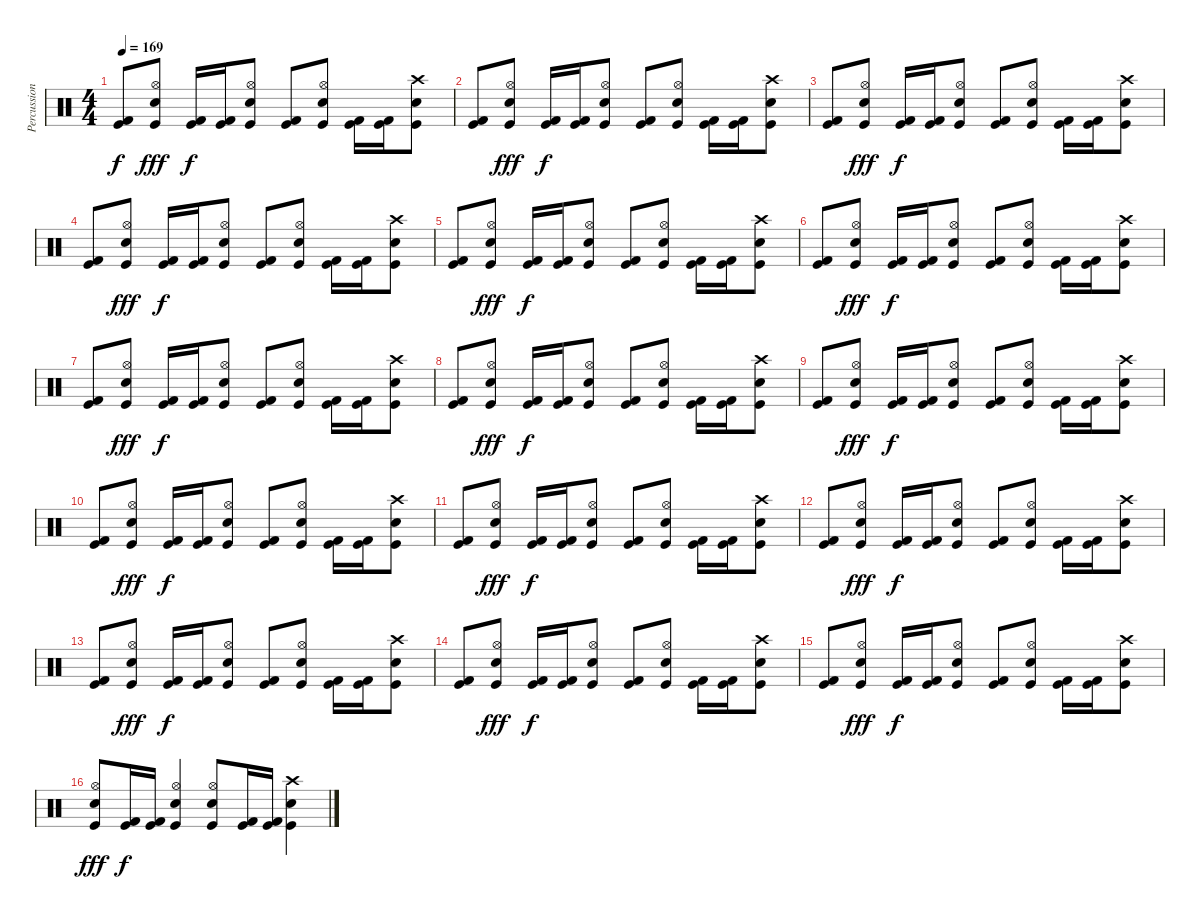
\track ("Percussion" "Percussion") {instrument percussion}
\staff {score}
\articulation defaults
\ts (4 4)
\tempo 169
\clef neutral
\ks c
("Kick (hit) 2" "Kick (hit)").8{dy f} ("Hi-Hat (open)" "Electric Snare (hit)" "Kick (hit)").8{dy fff} ("Kick (hit) 2" "Kick (hit)").16{dy f} ("Kick (hit) 2" "Kick (hit)").16 ("Hi-Hat (open)" "Electric Snare (hit)" "Kick (hit)").8 ("Kick (hit) 2" "Kick (hit)").8 ("Hi-Hat (open)" "Electric Snare (hit)" "Kick (hit)").8 ("Kick (hit) 2" "Kick (hit)").16 ("Kick (hit) 2" "Kick (hit)").16 ("Crash high (hit)" "Electric Snare (hit)" "Kick (hit)").8 |
("Kick (hit) 2" "Kick (hit)").8 ("Hi-Hat (open)" "Electric Snare (hit)" "Kick (hit)").8{dy fff} ("Kick (hit) 2" "Kick (hit)").16{dy f} ("Kick (hit) 2" "Kick (hit)").16 ("Hi-Hat (open)" "Electric Snare (hit)" "Kick (hit)").8 ("Kick (hit) 2" "Kick (hit)").8 ("Hi-Hat (open)" "Electric Snare (hit)" "Kick (hit)").8 ("Kick (hit) 2" "Kick (hit)").16 ("Kick (hit) 2" "Kick (hit)").16 ("Crash high (hit)" "Electric Snare (hit)" "Kick (hit)").8 |
("Kick (hit) 2" "Kick (hit)").8 ("Hi-Hat (open)" "Electric Snare (hit)" "Kick (hit)").8{dy fff} ("Kick (hit) 2" "Kick (hit)").16{dy f} ("Kick (hit) 2" "Kick (hit)").16 ("Hi-Hat (open)" "Electric Snare (hit)" "Kick (hit)").8 ("Kick (hit) 2" "Kick (hit)").8 ("Hi-Hat (open)" "Electric Snare (hit)" "Kick (hit)").8 ("Kick (hit) 2" "Kick (hit)").16 ("Kick (hit) 2" "Kick (hit)").16 ("Crash high (hit)" "Electric Snare (hit)" "Kick (hit)").8 |
("Kick (hit) 2" "Kick (hit)").8 ("Hi-Hat (open)" "Electric Snare (hit)" "Kick (hit)").8{dy fff} ("Kick (hit) 2" "Kick (hit)").16{dy f} ("Kick (hit) 2" "Kick (hit)").16 ("Hi-Hat (open)" "Electric Snare (hit)" "Kick (hit)").8 ("Kick (hit) 2" "Kick (hit)").8 ("Hi-Hat (open)" "Electric Snare (hit)" "Kick (hit)").8 ("Kick (hit) 2" "Kick (hit)").16 ("Kick (hit) 2" "Kick (hit)").16 ("Crash high (hit)" "Electric Snare (hit)" "Kick (hit)").8 |
("Kick (hit) 2" "Kick (hit)").8 ("Hi-Hat (open)" "Electric Snare (hit)" "Kick (hit)").8{dy fff} ("Kick (hit) 2" "Kick (hit)").16{dy f} ("Kick (hit) 2" "Kick (hit)").16 ("Hi-Hat (open)" "Electric Snare (hit)" "Kick (hit)").8 ("Kick (hit) 2" "Kick (hit)").8 ("Hi-Hat (open)" "Electric Snare (hit)" "Kick (hit)").8 ("Kick (hit) 2" "Kick (hit)").16 ("Kick (hit) 2" "Kick (hit)").16 ("Crash high (hit)" "Electric Snare (hit)" "Kick (hit)").8 |
("Kick (hit) 2" "Kick (hit)").8 ("Hi-Hat (open)" "Electric Snare (hit)" "Kick (hit)").8{dy fff} ("Kick (hit) 2" "Kick (hit)").16{dy f} ("Kick (hit) 2" "Kick (hit)").16 ("Hi-Hat (open)" "Electric Snare (hit)" "Kick (hit)").8 ("Kick (hit) 2" "Kick (hit)").8 ("Hi-Hat (open)" "Electric Snare (hit)" "Kick (hit)").8 ("Kick (hit) 2" "Kick (hit)").16 ("Kick (hit) 2" "Kick (hit)").16 ("Crash high (hit)" "Electric Snare (hit)" "Kick (hit)").8 |
("Kick (hit) 2" "Kick (hit)").8 ("Hi-Hat (open)" "Electric Snare (hit)" "Kick (hit)").8{dy fff} ("Kick (hit) 2" "Kick (hit)").16{dy f} ("Kick (hit) 2" "Kick (hit)").16 ("Hi-Hat (open)" "Electric Snare (hit)" "Kick (hit)").8 ("Kick (hit) 2" "Kick (hit)").8 ("Hi-Hat (open)" "Electric Snare (hit)" "Kick (hit)").8 ("Kick (hit) 2" "Kick (hit)").16 ("Kick (hit) 2" "Kick (hit)").16 ("Crash high (hit)" "Electric Snare (hit)" "Kick (hit)").8 |
("Kick (hit) 2" "Kick (hit)").8 ("Hi-Hat (open)" "Electric Snare (hit)" "Kick (hit)").8{dy fff} ("Kick (hit) 2" "Kick (hit)").16{dy f} ("Kick (hit) 2" "Kick (hit)").16 ("Hi-Hat (open)" "Electric Snare (hit)" "Kick (hit)").8 ("Kick (hit) 2" "Kick (hit)").8 ("Hi-Hat (open)" "Electric Snare (hit)" "Kick (hit)").8 ("Kick (hit) 2" "Kick (hit)").16 ("Kick (hit) 2" "Kick (hit)").16 ("Crash high (hit)" "Electric Snare (hit)" "Kick (hit)").8 |
("Kick (hit) 2" "Kick (hit)").8 ("Hi-Hat (open)" "Electric Snare (hit)" "Kick (hit)").8{dy fff} ("Kick (hit) 2" "Kick (hit)").16{dy f} ("Kick (hit) 2" "Kick (hit)").16 ("Hi-Hat (open)" "Electric Snare (hit)" "Kick (hit)").8 ("Kick (hit) 2" "Kick (hit)").8 ("Hi-Hat (open)" "Electric Snare (hit)" "Kick (hit)").8 ("Kick (hit) 2" "Kick (hit)").16 ("Kick (hit) 2" "Kick (hit)").16 ("Crash high (hit)" "Electric Snare (hit)" "Kick (hit)").8 |
("Kick (hit) 2" "Kick (hit)").8 ("Hi-Hat (open)" "Electric Snare (hit)" "Kick (hit)").8{dy fff} ("Kick (hit) 2" "Kick (hit)").16{dy f} ("Kick (hit) 2" "Kick (hit)").16 ("Hi-Hat (open)" "Electric Snare (hit)" "Kick (hit)").8 ("Kick (hit) 2" "Kick (hit)").8 ("Hi-Hat (open)" "Electric Snare (hit)" "Kick (hit)").8 ("Kick (hit) 2" "Kick (hit)").16 ("Kick (hit) 2" "Kick (hit)").16 ("Crash high (hit)" "Electric Snare (hit)" "Kick (hit)").8 |
("Kick (hit) 2" "Kick (hit)").8 ("Hi-Hat (open)" "Electric Snare (hit)" "Kick (hit)").8{dy fff} ("Kick (hit) 2" "Kick (hit)").16{dy f} ("Kick (hit) 2" "Kick (hit)").16 ("Hi-Hat (open)" "Electric Snare (hit)" "Kick (hit)").8 ("Kick (hit) 2" "Kick (hit)").8 ("Hi-Hat (open)" "Electric Snare (hit)" "Kick (hit)").8 ("Kick (hit) 2" "Kick (hit)").16 ("Kick (hit) 2" "Kick (hit)").16 ("Crash high (hit)" "Electric Snare (hit)" "Kick (hit)").8 |
("Kick (hit) 2" "Kick (hit)").8 ("Hi-Hat (open)" "Electric Snare (hit)" "Kick (hit)").8{dy fff} ("Kick (hit) 2" "Kick (hit)").16{dy f} ("Kick (hit) 2" "Kick (hit)").16 ("Hi-Hat (open)" "Electric Snare (hit)" "Kick (hit)").8 ("Kick (hit) 2" "Kick (hit)").8 ("Hi-Hat (open)" "Electric Snare (hit)" "Kick (hit)").8 ("Kick (hit) 2" "Kick (hit)").16 ("Kick (hit) 2" "Kick (hit)").16 ("Crash high (hit)" "Electric Snare (hit)" "Kick (hit)").8 |
("Kick (hit) 2" "Kick (hit)").8 ("Hi-Hat (open)" "Electric Snare (hit)" "Kick (hit)").8{dy fff} ("Kick (hit) 2" "Kick (hit)").16{dy f} ("Kick (hit) 2" "Kick (hit)").16 ("Hi-Hat (open)" "Electric Snare (hit)" "Kick (hit)").8 ("Kick (hit) 2" "Kick (hit)").8 ("Hi-Hat (open)" "Electric Snare (hit)" "Kick (hit)").8 ("Kick (hit) 2" "Kick (hit)").16 ("Kick (hit) 2" "Kick (hit)").16 ("Crash high (hit)" "Electric Snare (hit)" "Kick (hit)").8 |
("Kick (hit) 2" "Kick (hit)").8 ("Hi-Hat (open)" "Electric Snare (hit)" "Kick (hit)").8{dy fff} ("Kick (hit) 2" "Kick (hit)").16{dy f} ("Kick (hit) 2" "Kick (hit)").16 ("Hi-Hat (open)" "Electric Snare (hit)" "Kick (hit)").8 ("Kick (hit) 2" "Kick (hit)").8 ("Hi-Hat (open)" "Electric Snare (hit)" "Kick (hit)").8 ("Kick (hit) 2" "Kick (hit)").16 ("Kick (hit) 2" "Kick (hit)").16 ("Crash high (hit)" "Electric Snare (hit)" "Kick (hit)").8 |
("Kick (hit) 2" "Kick (hit)").8 ("Hi-Hat (open)" "Electric Snare (hit)" "Kick (hit)").8{dy fff} ("Kick (hit) 2" "Kick (hit)").16{dy f} ("Kick (hit) 2" "Kick (hit)").16 ("Hi-Hat (open)" "Electric Snare (hit)" "Kick (hit)").8 ("Kick (hit) 2" "Kick (hit)").8 ("Hi-Hat (open)" "Electric Snare (hit)" "Kick (hit)").8 ("Kick (hit) 2" "Kick (hit)").16 ("Kick (hit) 2" "Kick (hit)").16 ("Crash high (hit)" "Electric Snare (hit)" "Kick (hit)").8 |
("Hi-Hat (open)" "Electric Snare (hit)" "Kick (hit)").8{dy fff} ("Kick (hit) 2" "Kick (hit)").16{dy f} ("Kick (hit) 2" "Kick (hit)").16 ("Hi-Hat (open)" "Electric Snare (hit)" "Kick (hit)").4 ("Hi-Hat (open)" "Electric Snare (hit)" "Kick (hit)").8 ("Kick (hit) 2" "Kick (hit)").16 ("Kick (hit) 2" "Kick (hit)").16 ("Crash high (hit)" "Electric Snare (hit)" "Kick (hit)").4
